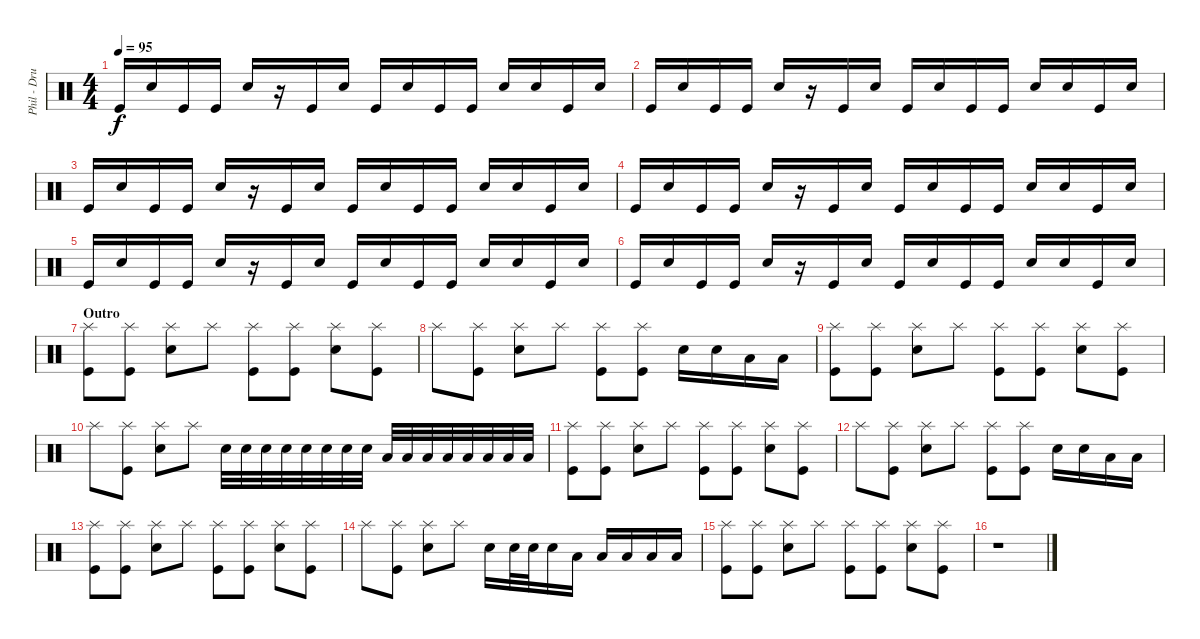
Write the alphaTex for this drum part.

\track ("Phil - Drums" "Phil - Dru") {instrument percussion}
\staff {score}
\articulation defaults
\ts (4 4)
\tempo 95
\clef neutral
\ks c "Kick (hit)".16{dy f} "Snare (hit) 2".16 "Kick (hit)".16 "Kick (hit)".16 "Snare (hit) 2".16
r.16 "Kick (hit)".16 "Snare (hit) 2".16 "Kick (hit)".16 "Snare (hit) 2".16 "Kick (hit)".16 "Kick (hit)".16 "Snare (hit) 2".16 "Snare (hit) 2".16 "Kick (hit)".16 "Snare (hit) 2".16 |
"Kick (hit)".16 "Snare (hit) 2".16 "Kick (hit)".16 "Kick (hit)".16 "Snare (hit) 2".16 r.16 "Kick (hit)".16 "Snare (hit) 2".16 "Kick (hit)".16 "Snare (hit) 2".16 "Kick (hit)".16 "Kick (hit)".16 "Snare (hit) 2".16 "Snare (hit) 2".16 "Kick (hit)".16 "Snare (hit) 2".16 |
"Kick (hit)".16 "Snare (hit) 2".16 "Kick (hit)".16 "Kick (hit)".16 "Snare (hit) 2".16 r.16 "Kick (hit)".16 "Snare (hit) 2".16 "Kick (hit)".16 "Snare (hit) 2".16 "Kick (hit)".16 "Kick (hit)".16 "Snare (hit) 2".16 "Snare (hit) 2".16 "Kick (hit)".16 "Snare (hit) 2".16 |
"Kick (hit)".16 "Snare (hit) 2".16 "Kick (hit)".16 "Kick (hit)".16 "Snare (hit) 2".16 r.16 "Kick (hit)".16 "Snare (hit) 2".16 "Kick (hit)".16 "Snare (hit) 2".16 "Kick (hit)".16 "Kick (hit)".16 "Snare (hit) 2".16 "Snare (hit) 2".16 "Kick (hit)".16 "Snare (hit) 2".16 |
"Kick (hit)".16 "Snare (hit) 2".16 "Kick (hit)".16 "Kick (hit)".16 "Snare (hit) 2".16 r.16 "Kick (hit)".16 "Snare (hit) 2".16 "Kick (hit)".16 "Snare (hit) 2".16 "Kick (hit)".16 "Kick (hit)".16 "Snare (hit) 2".16 "Snare (hit) 2".16 "Kick (hit)".16 "Snare (hit) 2".16 |
"Kick (hit)".16 "Snare (hit) 2".16 "Kick (hit)".16 "Kick (hit)".16 "Snare (hit) 2".16 r.16 "Kick (hit)".16 "Snare (hit) 2".16 "Kick (hit)".16 "Snare (hit) 2".16 "Kick (hit)".16 "Kick (hit)".16 "Snare (hit) 2".16 "Snare (hit) 2".16 "Kick (hit)".16 "Snare (hit) 2".16 |
\section ("" "Outro")
("Splash (hit)" "Kick (hit)").8 ("Splash (hit)" "Kick (hit)").8 ("Splash (hit)" "Snare (hit) 2").8 "Splash (hit)".8 ("Splash (hit)" "Kick (hit)").8 ("Splash (hit)" "Kick (hit)").8 ("Splash (hit)" "Snare (hit) 2").8 ("Splash (hit)" "Kick (hit)").8 |
"Splash (hit)".8 ("Splash (hit)" "Kick (hit)").8 ("Splash (hit)" "Snare (hit) 2").8 "Splash (hit)".8 ("Splash (hit)" "Kick (hit)").8 ("Splash (hit)" "Kick (hit)").8 "Snare (hit) 2".16 "Snare (hit) 2".16 "Low Tom (hit)".16 "Low Tom (hit)".16 |
("Splash (hit)" "Kick (hit)").8 ("Splash (hit)" "Kick (hit)").8 ("Splash (hit)" "Snare (hit) 2").8 "Splash (hit)".8 ("Splash (hit)" "Kick (hit)").8 ("Splash (hit)" "Kick (hit)").8 ("Splash (hit)" "Snare (hit) 2").8 ("Splash (hit)" "Kick (hit)").8 |
"Splash (hit)".8 ("Splash (hit)" "Kick (hit)").8 ("Splash (hit)" "Snare (hit) 2").8 "Splash (hit)".8 "Snare (hit) 2".32 "Snare (hit) 2".32 "Snare (hit) 2".32 "Snare (hit) 2".32 "Snare (hit) 2".32 "Snare (hit) 2".32 "Snare (hit) 2".32 "Snare (hit) 2".32 "Low Tom (hit)".32 "Low Tom (hit)".32 "Low Tom (hit)".32 "Low Tom (hit)".32 "Low Tom (hit)".32 "Low Tom (hit)".32 "Low Tom (hit)".32 "Low Tom (hit)".32 |
("Splash (hit)" "Kick (hit)").8 ("Splash (hit)" "Kick (hit)").8 ("Splash (hit)" "Snare (hit) 2").8 "Splash (hit)".8 ("Splash (hit)" "Kick (hit)").8 ("Splash (hit)" "Kick (hit)").8 ("Splash (hit)" "Snare (hit) 2").8 ("Splash (hit)" "Kick (hit)").8 |
"Splash (hit)".8 ("Splash (hit)" "Kick (hit)").8 ("Splash (hit)" "Snare (hit) 2").8 "Splash (hit)".8 ("Splash (hit)" "Kick (hit)").8 ("Splash (hit)" "Kick (hit)").8 "Snare (hit) 2".16 "Snare (hit) 2".16 "Low Tom (hit)".16 "Low Tom (hit)".16 |
("Splash (hit)" "Kick (hit)").8 ("Splash (hit)" "Kick (hit)").8 ("Splash (hit)" "Snare (hit) 2").8 "Splash (hit)".8 ("Splash (hit)" "Kick (hit)").8 ("Splash (hit)" "Kick (hit)").8 ("Splash (hit)" "Snare (hit) 2").8 ("Splash (hit)" "Kick (hit)").8 |
"Splash (hit)".8 ("Splash (hit)" "Kick (hit)").8 ("Splash (hit)" "Snare (hit) 2").8 "Splash (hit)".8 "Snare (hit) 2".16 "Snare (hit) 2".32 "Snare (hit) 2".32 "Snare (hit) 2".16 "Low Tom (hit)".16 "Low Tom (hit)".16 "Low Tom (hit)".16 "Low Tom (hit)".16 "Low Tom (hit)".16 |
("Splash (hit)" "Kick (hit)").8 ("Splash (hit)" "Kick (hit)").8 ("Splash (hit)" "Snare (hit) 2").8 "Splash (hit)".8 ("Splash (hit)" "Kick (hit)").8 ("Splash (hit)" "Kick (hit)").8 ("Splash (hit)" "Snare (hit) 2").8 ("Splash (hit)" "Kick (hit)").8 |
r.1
